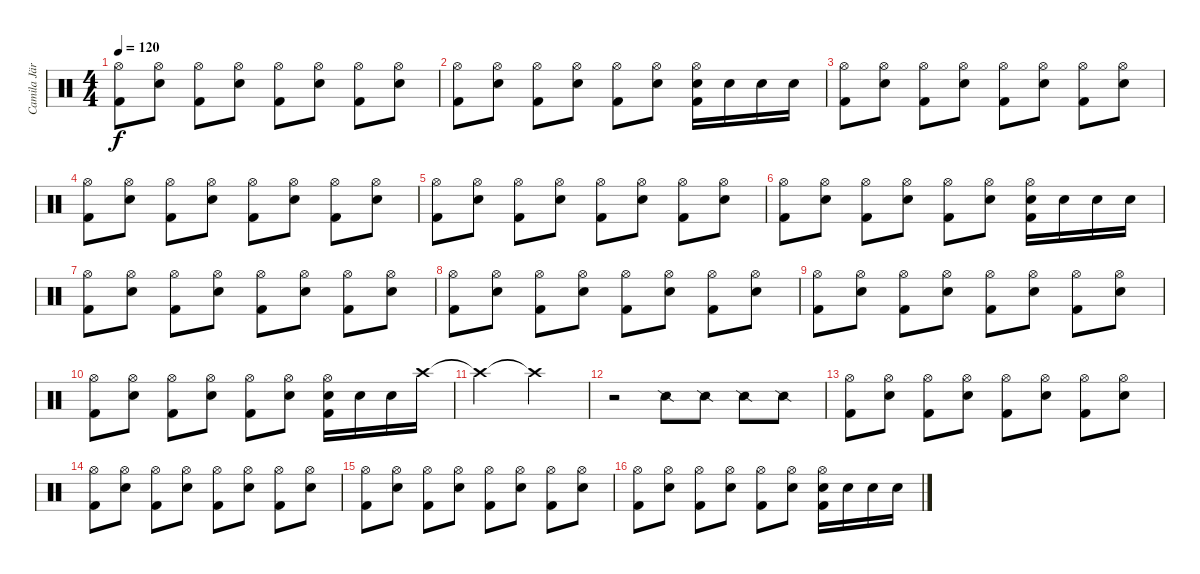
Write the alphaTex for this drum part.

\track ("Camila Jära" "Camila Jär") {instrument percussion}
\staff {score}
\articulation defaults
\ts (4 4)
\tempo 120
\clef neutral
\ks c
("Hi-Hat (open)" "Kick (hit) 2").8{dy f} ("Hi-Hat (open)" "Snare (hit) 2").8 ("Hi-Hat (open)" "Kick (hit) 2").8 ("Hi-Hat (open)" "Snare (hit) 2").8 ("Hi-Hat (open)" "Kick (hit) 2").8 ("Hi-Hat (open)" "Snare (hit) 2").8 ("Hi-Hat (open)" "Kick (hit) 2").8 ("Hi-Hat (open)" "Snare (hit) 2").8 |
("Hi-Hat (open)" "Kick (hit) 2").8 ("Hi-Hat (open)" "Snare (hit) 2").8 ("Hi-Hat (open)" "Kick (hit) 2").8 ("Hi-Hat (open)" "Snare (hit) 2").8 ("Hi-Hat (open)" "Kick (hit) 2").8 ("Hi-Hat (open)" "Snare (hit) 2").8 ("Hi-Hat (open)" "Snare (hit) 2" "Kick (hit) 2").16 "Snare (hit) 2".16 "Snare (hit) 2".16 "Snare (hit) 2".16 |
("Hi-Hat (open)" "Kick (hit) 2").8 ("Hi-Hat (open)" "Snare (hit) 2").8 ("Hi-Hat (open)" "Kick (hit) 2").8 ("Hi-Hat (open)" "Snare (hit) 2").8 ("Hi-Hat (open)" "Kick (hit) 2").8 ("Hi-Hat (open)" "Snare (hit) 2").8 ("Hi-Hat (open)" "Kick (hit) 2").8 ("Hi-Hat (open)" "Snare (hit) 2").8 |
("Hi-Hat (open)" "Kick (hit) 2").8 ("Hi-Hat (open)" "Snare (hit) 2").8 ("Hi-Hat (open)" "Kick (hit) 2").8 ("Hi-Hat (open)" "Snare (hit) 2").8 ("Hi-Hat (open)" "Kick (hit) 2").8 ("Hi-Hat (open)" "Snare (hit) 2").8 ("Hi-Hat (open)" "Kick (hit) 2").8 ("Hi-Hat (open)" "Snare (hit) 2").8 |
("Hi-Hat (open)" "Kick (hit) 2").8 ("Hi-Hat (open)" "Snare (hit) 2").8 ("Hi-Hat (open)" "Kick (hit) 2").8 ("Hi-Hat (open)" "Snare (hit) 2").8 ("Hi-Hat (open)" "Kick (hit) 2").8 ("Hi-Hat (open)" "Snare (hit) 2").8 ("Hi-Hat (open)" "Kick (hit) 2").8 ("Hi-Hat (open)" "Snare (hit) 2").8 |
("Hi-Hat (open)" "Kick (hit) 2").8 ("Hi-Hat (open)" "Snare (hit) 2").8 ("Hi-Hat (open)" "Kick (hit) 2").8 ("Hi-Hat (open)" "Snare (hit) 2").8 ("Hi-Hat (open)" "Kick (hit) 2").8 ("Hi-Hat (open)" "Snare (hit) 2").8 ("Hi-Hat (open)" "Snare (hit) 2" "Kick (hit) 2").16 "Snare (hit) 2".16 "Snare (hit) 2".16 "Snare (hit) 2".16 |
("Hi-Hat (open)" "Kick (hit) 2").8 ("Hi-Hat (open)" "Snare (hit) 2").8 ("Hi-Hat (open)" "Kick (hit) 2").8 ("Hi-Hat (open)" "Snare (hit) 2").8 ("Hi-Hat (open)" "Kick (hit) 2").8 ("Hi-Hat (open)" "Snare (hit) 2").8 ("Hi-Hat (open)" "Kick (hit) 2").8 ("Hi-Hat (open)" "Snare (hit) 2").8 |
("Hi-Hat (open)" "Kick (hit) 2").8 ("Hi-Hat (open)" "Snare (hit) 2").8 ("Hi-Hat (open)" "Kick (hit) 2").8 ("Hi-Hat (open)" "Snare (hit) 2").8 ("Hi-Hat (open)" "Kick (hit) 2").8 ("Hi-Hat (open)" "Snare (hit) 2").8 ("Hi-Hat (open)" "Kick (hit) 2").8 ("Hi-Hat (open)" "Snare (hit) 2").8 |
("Hi-Hat (open)" "Kick (hit) 2").8 ("Hi-Hat (open)" "Snare (hit) 2").8 ("Hi-Hat (open)" "Kick (hit) 2").8 ("Hi-Hat (open)" "Snare (hit) 2").8 ("Hi-Hat (open)" "Kick (hit) 2").8 ("Hi-Hat (open)" "Snare (hit) 2").8 ("Hi-Hat (open)" "Kick (hit) 2").8 ("Hi-Hat (open)" "Snare (hit) 2").8 |
("Hi-Hat (open)" "Kick (hit) 2").8 ("Hi-Hat (open)" "Snare (hit) 2").8 ("Hi-Hat (open)" "Kick (hit) 2").8 ("Hi-Hat (open)" "Snare (hit) 2").8 ("Hi-Hat (open)" "Kick (hit) 2").8 ("Hi-Hat (open)" "Snare (hit) 2").8 ("Hi-Hat (open)" "Snare (hit) 2" "Kick (hit) 2").16 "Snare (hit) 2".16 "Snare (hit) 2".16 "Crash high (hit)".16 |
"Crash high (hit)"{t}.2 "Crash high (hit)"{t}.2 |
r.2 "Snare (side stick) 2".8 "Snare (side stick) 2".8 "Snare (side stick) 2".8 "Snare (side stick) 2".8 |
("Hi-Hat (open)" "Kick (hit) 2").8 ("Hi-Hat (open)" "Snare (hit) 2").8 ("Hi-Hat (open)" "Kick (hit) 2").8 ("Hi-Hat (open)" "Snare (hit) 2").8 ("Hi-Hat (open)" "Kick (hit) 2").8 ("Hi-Hat (open)" "Snare (hit) 2").8 ("Hi-Hat (open)" "Kick (hit) 2").8 ("Hi-Hat (open)" "Snare (hit) 2").8 |
("Hi-Hat (open)" "Kick (hit) 2").8 ("Hi-Hat (open)" "Snare (hit) 2").8 ("Hi-Hat (open)" "Kick (hit) 2").8 ("Hi-Hat (open)" "Snare (hit) 2").8 ("Hi-Hat (open)" "Kick (hit) 2").8 ("Hi-Hat (open)" "Snare (hit) 2").8 ("Hi-Hat (open)" "Kick (hit) 2").8 ("Hi-Hat (open)" "Snare (hit) 2").8 |
("Hi-Hat (open)" "Kick (hit) 2").8 ("Hi-Hat (open)" "Snare (hit) 2").8 ("Hi-Hat (open)" "Kick (hit) 2").8 ("Hi-Hat (open)" "Snare (hit) 2").8 ("Hi-Hat (open)" "Kick (hit) 2").8 ("Hi-Hat (open)" "Snare (hit) 2").8 ("Hi-Hat (open)" "Kick (hit) 2").8 ("Hi-Hat (open)" "Snare (hit) 2").8 |
("Hi-Hat (open)" "Kick (hit) 2").8 ("Hi-Hat (open)" "Snare (hit) 2").8 ("Hi-Hat (open)" "Kick (hit) 2").8 ("Hi-Hat (open)" "Snare (hit) 2").8 ("Hi-Hat (open)" "Kick (hit) 2").8 ("Hi-Hat (open)" "Snare (hit) 2").8 ("Hi-Hat (open)" "Snare (hit) 2" "Kick (hit) 2").16 "Snare (hit) 2".16 "Snare (hit) 2".16 "Snare (hit) 2".16
